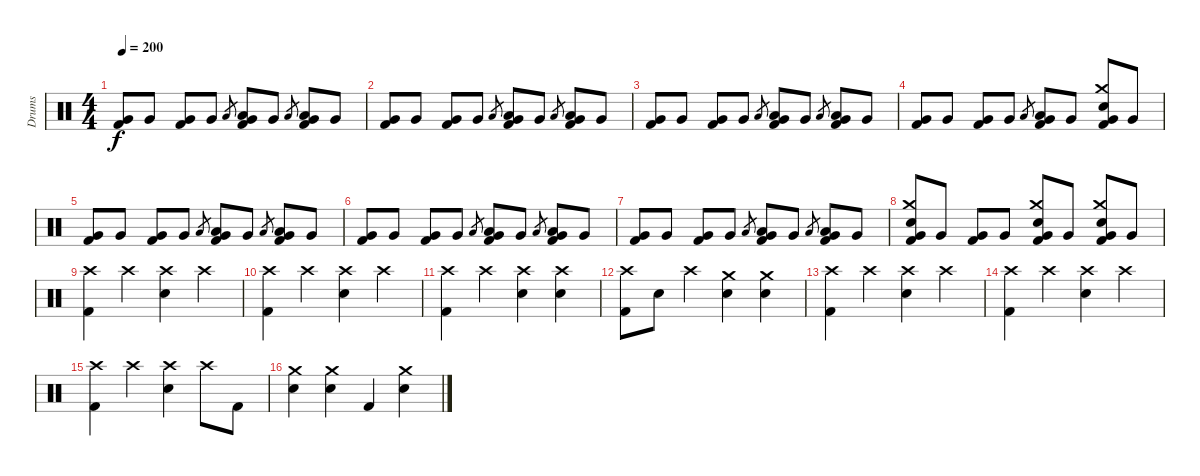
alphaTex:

\track ("Drums" "Drums") {instrument percussion}
\staff {score}
\articulation defaults
\ts (4 4)
\tempo 200
\clef neutral
\ks c
("Very Low Tom (hit)" "Kick (hit) 2").8{dy f} "Very Low Tom (hit)".8 ("Very Low Tom (hit)" "Kick (hit) 2").8 "Very Low Tom (hit)".8 "Low Tom (hit)".8{gr} ("Low Tom (hit)" "Very Low Tom (hit)" "Kick (hit) 2").8 "Very Low Tom (hit)".8 "Low Floor Tom (hit)".8{gr} ("Low Floor Tom (hit)" "Very Low Tom (hit)" "Kick (hit) 2").8 "Very Low Tom (hit)".8 |
("Very Low Tom (hit)" "Kick (hit) 2").8 "Very Low Tom (hit)".8 ("Very Low Tom (hit)" "Kick (hit) 2").8 "Very Low Tom (hit)".8 "Low Tom (hit)".8{gr} ("Low Tom (hit)" "Very Low Tom (hit)" "Kick (hit) 2").8 "Very Low Tom (hit)".8 "Low Floor Tom (hit)".8{gr} ("Low Floor Tom (hit)" "Very Low Tom (hit)" "Kick (hit) 2").8 "Very Low Tom (hit)".8 |
("Very Low Tom (hit)" "Kick (hit) 2").8 "Very Low Tom (hit)".8 ("Very Low Tom (hit)" "Kick (hit) 2").8 "Very Low Tom (hit)".8 "Low Tom (hit)".8{gr} ("Low Tom (hit)" "Very Low Tom (hit)" "Kick (hit) 2").8 "Very Low Tom (hit)".8 "Low Floor Tom (hit)".8{gr} ("Low Floor Tom (hit)" "Very Low Tom (hit)" "Kick (hit) 2").8 "Very Low Tom (hit)".8 |
("Very Low Tom (hit)" "Kick (hit) 2").8 "Very Low Tom (hit)".8 ("Very Low Tom (hit)" "Kick (hit) 2").8 "Very Low Tom (hit)".8 "Low Tom (hit)".8{gr} ("Low Tom (hit)" "Very Low Tom (hit)" "Kick (hit) 2").8 "Very Low Tom (hit)".8 ("Crash medium (hit)" "Electric Snare (hit)" "Very Low Tom (hit)" "Kick (hit) 2").8 "Very Low Tom (hit)".8 |
("Very Low Tom (hit)" "Kick (hit) 2").8 "Very Low Tom (hit)".8 ("Very Low Tom (hit)" "Kick (hit) 2").8 "Very Low Tom (hit)".8 "Low Tom (hit)".8{gr} ("Low Tom (hit)" "Very Low Tom (hit)" "Kick (hit) 2").8 "Very Low Tom (hit)".8 "Low Floor Tom (hit)".8{gr} ("Low Floor Tom (hit)" "Very Low Tom (hit)" "Kick (hit) 2").8 "Very Low Tom (hit)".8 |
("Very Low Tom (hit)" "Kick (hit) 2").8 "Very Low Tom (hit)".8 ("Very Low Tom (hit)" "Kick (hit) 2").8 "Very Low Tom (hit)".8 "Low Tom (hit)".8{gr} ("Low Tom (hit)" "Very Low Tom (hit)" "Kick (hit) 2").8 "Very Low Tom (hit)".8 "Low Floor Tom (hit)".8{gr} ("Low Floor Tom (hit)" "Very Low Tom (hit)" "Kick (hit) 2").8 "Very Low Tom (hit)".8 |
("Very Low Tom (hit)" "Kick (hit) 2").8 "Very Low Tom (hit)".8 ("Very Low Tom (hit)" "Kick (hit) 2").8 "Very Low Tom (hit)".8 "Low Tom (hit)".8{gr} ("Low Tom (hit)" "Very Low Tom (hit)" "Kick (hit) 2").8 "Very Low Tom (hit)".8 "Low Floor Tom (hit)".8{gr} ("Low Floor Tom (hit)" "Very Low Tom (hit)" "Kick (hit) 2").8 "Very Low Tom (hit)".8 |
("Crash medium (hit)" "Electric Snare (hit)" "Very Low Tom (hit)" "Kick (hit) 2").8 "Very Low Tom (hit)".8 ("Very Low Tom (hit)" "Kick (hit) 2").8 "Very Low Tom (hit)".8 ("Crash medium (hit)" "Electric Snare (hit)" "Very Low Tom (hit)" "Kick (hit) 2").8 "Very Low Tom (hit)".8 ("Crash medium (hit)" "Electric Snare (hit)" "Very Low Tom (hit)" "Kick (hit) 2").8 "Very Low Tom (hit)".8 |
("Crash high (hit)" "Kick (hit) 2").4 "Crash high (hit)".4 ("Crash high (hit)" "Electric Snare (hit)").4 "Crash high (hit)".4 |
("Crash high (hit)" "Kick (hit) 2").4 "Crash high (hit)".4 ("Crash high (hit)" "Electric Snare (hit)").4 "Crash high (hit)".4 |
("Crash high (hit)" "Kick (hit) 2").4 "Crash high (hit)".4 ("Crash high (hit)" "Electric Snare (hit)").4 ("Crash high (hit)" "Electric Snare (hit)").4 |
("Crash high (hit)" "Kick (hit) 2").8 "Electric Snare (hit)".8 "Crash high (hit)".4 ("Crash medium (hit)" "Electric Snare (hit)").4 ("Crash medium (hit)" "Electric Snare (hit)").4 |
("Crash high (hit)" "Kick (hit) 2").4 "Crash high (hit)".4 ("Crash high (hit)" "Electric Snare (hit)").4 "Crash high (hit)".4 |
("Crash high (hit)" "Kick (hit) 2").4 "Crash high (hit)".4 ("Crash high (hit)" "Electric Snare (hit)").4 "Crash high (hit)".4 |
("Crash high (hit)" "Kick (hit) 2").4 "Crash high (hit)".4 ("Crash high (hit)" "Electric Snare (hit)").4 "Crash high (hit)".8 "Kick (hit) 2".8 |
("Crash medium (hit)" "Electric Snare (hit)").4 ("Crash medium (hit)" "Electric Snare (hit)").4 "Kick (hit) 2".4 ("Crash medium (hit)" "Electric Snare (hit)").4
